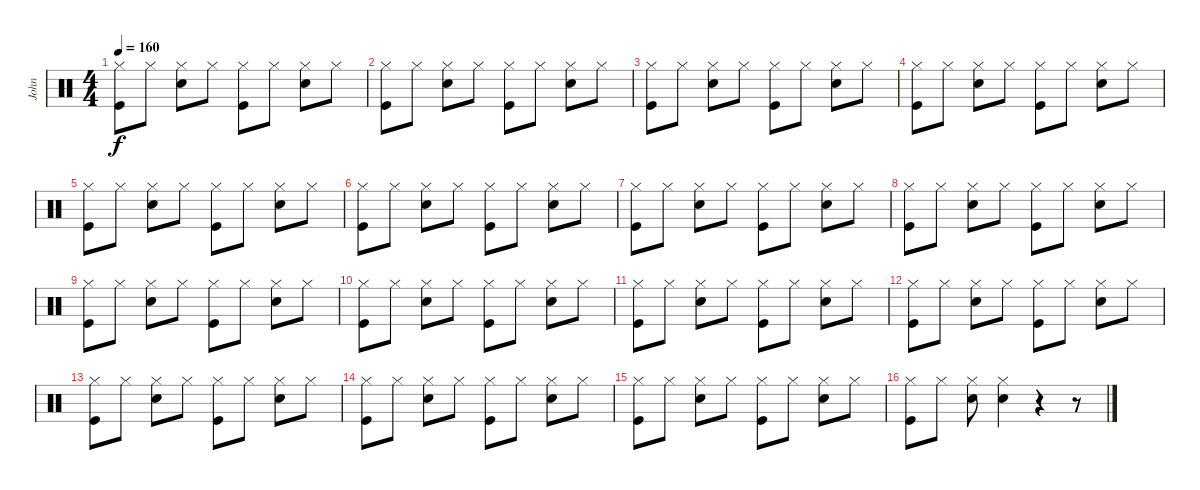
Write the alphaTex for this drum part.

\track ("John" "John") {instrument percussion}
\staff {score}
\articulation defaults
\ts (4 4)
\tempo 160
\clef neutral
\ks c
("Hi-Hat (closed)" "Kick (hit)").8{dy f} "Hi-Hat (closed)".8 ("Hi-Hat (closed)" "Electric Snare (hit)").8 "Hi-Hat (closed)".8 ("Hi-Hat (closed)" "Kick (hit)").8 "Hi-Hat (closed)".8 ("Hi-Hat (closed)" "Electric Snare (hit)").8 "Hi-Hat (closed)".8 |
("Hi-Hat (closed)" "Kick (hit)").8 "Hi-Hat (closed)".8 ("Hi-Hat (closed)" "Electric Snare (hit)").8 "Hi-Hat (closed)".8 ("Hi-Hat (closed)" "Kick (hit)").8 "Hi-Hat (closed)".8 ("Hi-Hat (closed)" "Electric Snare (hit)").8 "Hi-Hat (closed)".8 |
("Hi-Hat (closed)" "Kick (hit)").8 "Hi-Hat (closed)".8 ("Hi-Hat (closed)" "Electric Snare (hit)").8 "Hi-Hat (closed)".8 ("Hi-Hat (closed)" "Kick (hit)").8 "Hi-Hat (closed)".8 ("Hi-Hat (closed)" "Electric Snare (hit)").8 "Hi-Hat (closed)".8 |
("Hi-Hat (closed)" "Kick (hit)").8 "Hi-Hat (closed)".8 ("Hi-Hat (closed)" "Electric Snare (hit)").8 "Hi-Hat (closed)".8 ("Hi-Hat (closed)" "Kick (hit)").8 "Hi-Hat (closed)".8 ("Hi-Hat (closed)" "Electric Snare (hit)").8 "Hi-Hat (closed)".8 |
("Hi-Hat (closed)" "Kick (hit)").8 "Hi-Hat (closed)".8 ("Hi-Hat (closed)" "Electric Snare (hit)").8 "Hi-Hat (closed)".8 ("Hi-Hat (closed)" "Kick (hit)").8 "Hi-Hat (closed)".8 ("Hi-Hat (closed)" "Electric Snare (hit)").8 "Hi-Hat (closed)".8 |
("Hi-Hat (closed)" "Kick (hit)").8 "Hi-Hat (closed)".8 ("Hi-Hat (closed)" "Electric Snare (hit)").8 "Hi-Hat (closed)".8 ("Hi-Hat (closed)" "Kick (hit)").8 "Hi-Hat (closed)".8 ("Hi-Hat (closed)" "Electric Snare (hit)").8 "Hi-Hat (closed)".8 |
("Hi-Hat (closed)" "Kick (hit)").8 "Hi-Hat (closed)".8 ("Hi-Hat (closed)" "Electric Snare (hit)").8 "Hi-Hat (closed)".8 ("Hi-Hat (closed)" "Kick (hit)").8 "Hi-Hat (closed)".8 ("Hi-Hat (closed)" "Electric Snare (hit)").8 "Hi-Hat (closed)".8 |
("Hi-Hat (closed)" "Kick (hit)").8 "Hi-Hat (closed)".8 ("Hi-Hat (closed)" "Electric Snare (hit)").8 "Hi-Hat (closed)".8 ("Hi-Hat (closed)" "Kick (hit)").8 "Hi-Hat (closed)".8 ("Hi-Hat (closed)" "Electric Snare (hit)").8 "Hi-Hat (closed)".8 |
("Hi-Hat (closed)" "Kick (hit)").8 "Hi-Hat (closed)".8 ("Hi-Hat (closed)" "Electric Snare (hit)").8 "Hi-Hat (closed)".8 ("Hi-Hat (closed)" "Kick (hit)").8 "Hi-Hat (closed)".8 ("Hi-Hat (closed)" "Electric Snare (hit)").8 "Hi-Hat (closed)".8 |
("Hi-Hat (closed)" "Kick (hit)").8 "Hi-Hat (closed)".8 ("Hi-Hat (closed)" "Electric Snare (hit)").8 "Hi-Hat (closed)".8 ("Hi-Hat (closed)" "Kick (hit)").8 "Hi-Hat (closed)".8 ("Hi-Hat (closed)" "Electric Snare (hit)").8 "Hi-Hat (closed)".8 |
("Hi-Hat (closed)" "Kick (hit)").8 "Hi-Hat (closed)".8 ("Hi-Hat (closed)" "Electric Snare (hit)").8 "Hi-Hat (closed)".8 ("Hi-Hat (closed)" "Kick (hit)").8 "Hi-Hat (closed)".8 ("Hi-Hat (closed)" "Electric Snare (hit)").8 "Hi-Hat (closed)".8 |
("Hi-Hat (closed)" "Kick (hit)").8 "Hi-Hat (closed)".8 ("Hi-Hat (closed)" "Electric Snare (hit)").8 "Hi-Hat (closed)".8 ("Hi-Hat (closed)" "Kick (hit)").8 "Hi-Hat (closed)".8 ("Hi-Hat (closed)" "Electric Snare (hit)").8 "Hi-Hat (closed)".8 |
("Hi-Hat (closed)" "Kick (hit)").8 "Hi-Hat (closed)".8 ("Hi-Hat (closed)" "Electric Snare (hit)").8 "Hi-Hat (closed)".8 ("Hi-Hat (closed)" "Kick (hit)").8 "Hi-Hat (closed)".8 ("Hi-Hat (closed)" "Electric Snare (hit)").8 "Hi-Hat (closed)".8 |
("Hi-Hat (closed)" "Kick (hit)").8 "Hi-Hat (closed)".8 ("Hi-Hat (closed)" "Electric Snare (hit)").8 "Hi-Hat (closed)".8 ("Hi-Hat (closed)" "Kick (hit)").8 "Hi-Hat (closed)".8 ("Hi-Hat (closed)" "Electric Snare (hit)").8 "Hi-Hat (closed)".8 |
("Hi-Hat (closed)" "Kick (hit)").8 "Hi-Hat (closed)".8 ("Hi-Hat (closed)" "Electric Snare (hit)").8 "Hi-Hat (closed)".8 ("Hi-Hat (closed)" "Kick (hit)").8 "Hi-Hat (closed)".8 ("Hi-Hat (closed)" "Electric Snare (hit)").8 "Hi-Hat (closed)".8 |
("Hi-Hat (closed)" "Kick (hit)").8 "Hi-Hat (closed)".8 ("Hi-Hat (closed)" "Electric Snare (hit)").8 ("Hi-Hat (closed)" "Snare (hit) 2").4 r.4 r.8
